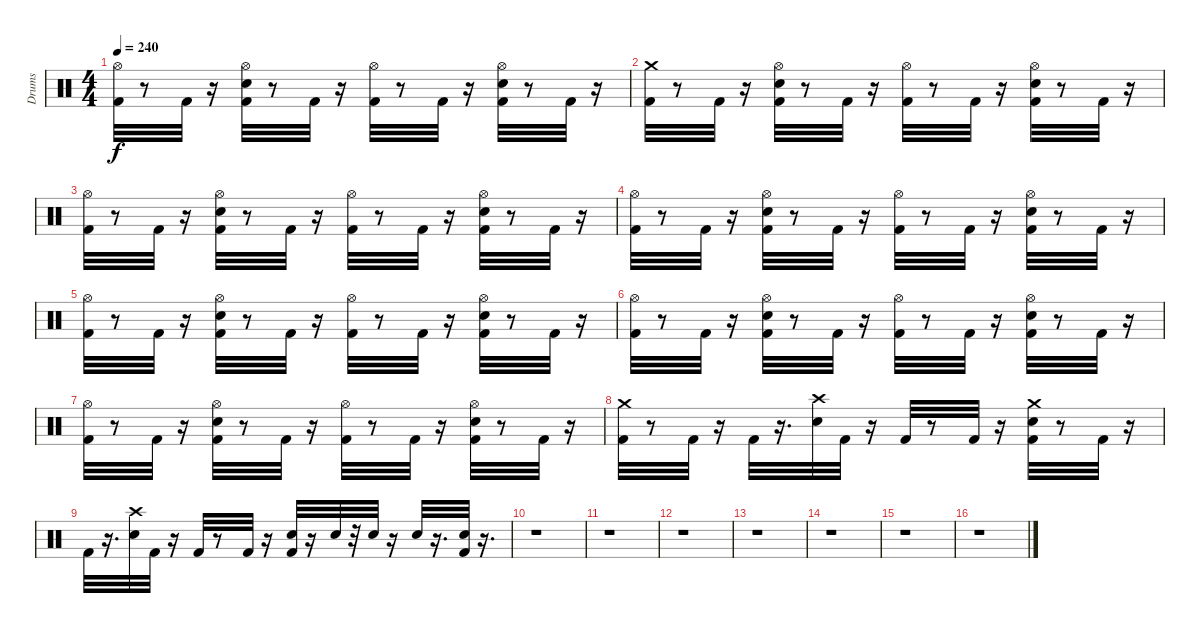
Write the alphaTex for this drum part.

\track ("Drums" "Drums") {instrument percussion}
\staff {score}
\articulation defaults
\ts (4 4)
\tempo 240
\clef neutral
\ks c
("Hi-Hat (open)" "Kick (hit) 2").32{dy f} r.8 "Kick (hit) 2".32 r.16 ("Electric Snare (hit)" "Hi-Hat (open)" "Kick (hit) 2").32 r.8 "Kick (hit) 2".32 r.16 ("Kick (hit) 2" "Hi-Hat (open)").32 r.8 "Kick (hit) 2".32 r.16 ("Electric Snare (hit)" "Hi-Hat (open)" "Kick (hit) 2").32 r.8 "Kick (hit) 2".32 r.16 |
("Kick (hit) 2" "Crash medium (hit)").32 r.8 "Kick (hit) 2".32 r.16 ("Electric Snare (hit)" "Kick (hit) 2" "Hi-Hat (open)").32 r.8 "Kick (hit) 2".32 r.16 ("Kick (hit) 2" "Hi-Hat (open)").32 r.8 "Kick (hit) 2".32 r.16 ("Kick (hit) 2" "Hi-Hat (open)" "Electric Snare (hit)").32 r.8 "Kick (hit) 2".32 r.16 |
("Kick (hit) 2" "Hi-Hat (open)").32 r.8 "Kick (hit) 2".32 r.16 ("Hi-Hat (open)" "Kick (hit) 2" "Electric Snare (hit)").32 r.8 "Kick (hit) 2".32 r.16 ("Kick (hit) 2" "Hi-Hat (open)").32 r.8 "Kick (hit) 2".32 r.16 ("Electric Snare (hit)" "Hi-Hat (open)" "Kick (hit) 2").32 r.8 "Kick (hit) 2".32 r.16 |
("Hi-Hat (open)" "Kick (hit) 2").32 r.8 "Kick (hit) 2".32 r.16 ("Electric Snare (hit)" "Hi-Hat (open)" "Kick (hit) 2").32 r.8 "Kick (hit) 2".32 r.16 ("Hi-Hat (open)" "Kick (hit) 2").32 r.8 "Kick (hit) 2".32 r.16 ("Hi-Hat (open)" "Electric Snare (hit)" "Kick (hit) 2").32 r.8 "Kick (hit) 2".32 r.16 |
("Hi-Hat (open)" "Kick (hit) 2").32 r.8 "Kick (hit) 2".32 r.16 ("Hi-Hat (open)" "Electric Snare (hit)" "Kick (hit) 2").32 r.8 "Kick (hit) 2".32 r.16 ("Hi-Hat (open)" "Kick (hit) 2").32 r.8 "Kick (hit) 2".32 r.16 ("Hi-Hat (open)" "Electric Snare (hit)" "Kick (hit) 2").32 r.8 "Kick (hit) 2".32 r.16 |
("Hi-Hat (open)" "Kick (hit) 2").32 r.8 "Kick (hit) 2".32 r.16 ("Hi-Hat (open)" "Electric Snare (hit)" "Kick (hit) 2").32 r.8 "Kick (hit) 2".32 r.16 ("Hi-Hat (open)" "Kick (hit) 2").32 r.8 "Kick (hit) 2".32 r.16 ("Hi-Hat (open)" "Electric Snare (hit)" "Kick (hit) 2").32 r.8 "Kick (hit) 2".32 r.16 |
("Kick (hit) 2" "Hi-Hat (open)").32 r.8 "Kick (hit) 2".32 r.16 ("Kick (hit) 2" "Electric Snare (hit)" "Hi-Hat (open)").32 r.8 "Kick (hit) 2".32 r.16 ("Kick (hit) 2" "Hi-Hat (open)").32 r.8 "Kick (hit) 2".32 r.16 ("Hi-Hat (open)" "Electric Snare (hit)" "Kick (hit) 2").32 r.8 "Kick (hit) 2".32 r.16 |
("Kick (hit) 2" "Crash medium (hit)").32 r.8 "Kick (hit) 2".32 r.16 "Kick (hit) 2".32 r.16{d} ("Electric Snare (hit)" "Crash high (hit)").32 "Kick (hit) 2".32 r.16 "Kick (hit) 2".32 r.8 "Kick (hit) 2".32 r.16 ("Crash medium (hit)" "Kick (hit) 2" "Electric Snare (hit)").32 r.8 "Kick (hit) 2".32 r.16 |
"Kick (hit) 2".32 r.16{d} ("Crash high (hit)" "Electric Snare (hit)").32 "Kick (hit) 2".32 r.16 "Kick (hit) 2".32 r.8 "Kick (hit) 2".32 r.16 ("Electric Snare (hit)" "Kick (hit) 2").32 r.16 "Electric Snare (hit)".32 r.32 "Electric Snare (hit)".32 r.16 "Electric Snare (hit)".32 r.16{d} ("Kick (hit) 2" "Electric Snare (hit)").32 r.16{d} |
r.1 |
r.1 |
r.1 |
r.1 |
r.1 |
r.1 |
r.1
